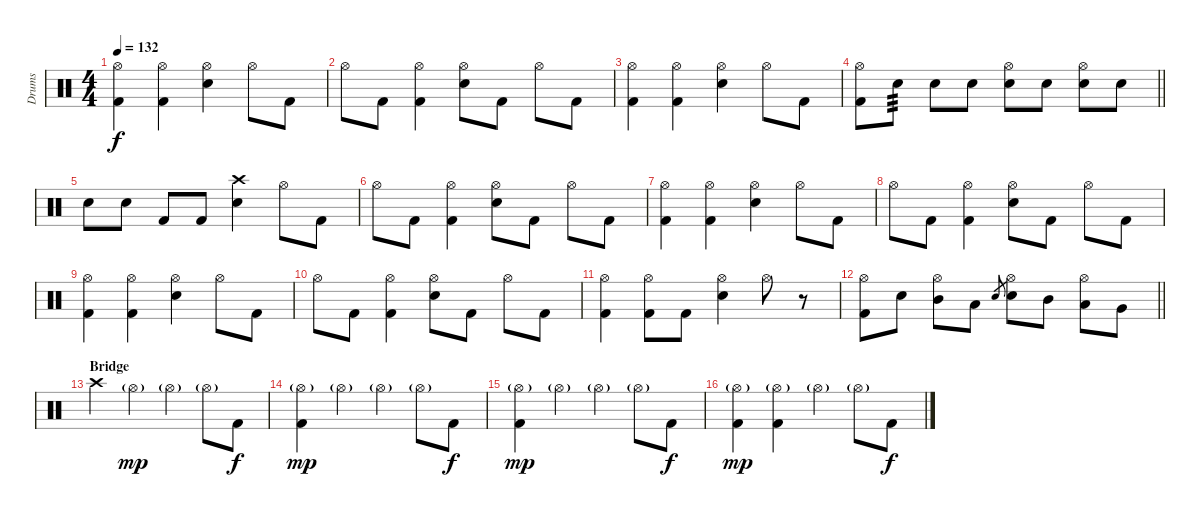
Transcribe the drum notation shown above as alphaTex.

\track ("Drums" "Drums") {instrument percussion}
\staff {score}
\articulation defaults
\ts (4 4)
\tempo 132
\clef neutral
\ks c
("Hi-Hat (open)" "Kick (hit) 2").4{dy f} ("Hi-Hat (open)" "Kick (hit) 2").4 ("Hi-Hat (open)" "Electric Snare (hit)").4 "Hi-Hat (open)".8 "Kick (hit) 2".8 |
"Hi-Hat (open)".8 "Kick (hit) 2".8 ("Hi-Hat (open)" "Kick (hit) 2").4 ("Hi-Hat (open)" "Electric Snare (hit)").8 "Kick (hit) 2".8 "Hi-Hat (open)".8 "Kick (hit) 2".8 |
("Hi-Hat (open)" "Kick (hit) 2").4 ("Hi-Hat (open)" "Kick (hit) 2").4 ("Hi-Hat (open)" "Electric Snare (hit)").4 "Hi-Hat (open)".8 "Kick (hit) 2".8 |
\barLineRight lightlight
("Hi-Hat (open)" "Kick (hit) 2").8 "Electric Snare (hit)".8{tp 3} "Electric Snare (hit)".8 "Electric Snare (hit)".8 ("Hi-Hat (open)" "Electric Snare (hit)").8 "Electric Snare (hit)".8 ("Hi-Hat (open)" "Electric Snare (hit)").8 "Electric Snare (hit)".8 |
"Electric Snare (hit)".8 "Electric Snare (hit)".8 "Kick (hit) 2".8 "Kick (hit) 2".8 ("Crash high (hit)" "Electric Snare (hit)").4 "Hi-Hat (open)".8 "Kick (hit) 2".8 |
"Hi-Hat (open)".8 "Kick (hit) 2".8 ("Hi-Hat (open)" "Kick (hit) 2").4 ("Hi-Hat (open)" "Electric Snare (hit)").8 "Kick (hit) 2".8 "Hi-Hat (open)".8 "Kick (hit) 2".8 |
("Hi-Hat (open)" "Kick (hit) 2").4 ("Hi-Hat (open)" "Kick (hit) 2").4 ("Hi-Hat (open)" "Electric Snare (hit)").4 "Hi-Hat (open)".8 "Kick (hit) 2".8 |
"Hi-Hat (open)".8 "Kick (hit) 2".8 ("Hi-Hat (open)" "Kick (hit) 2").4 ("Hi-Hat (open)" "Electric Snare (hit)").8 "Kick (hit) 2".8 "Hi-Hat (open)".8 "Kick (hit) 2".8 |
("Hi-Hat (open)" "Kick (hit) 2").4 ("Hi-Hat (open)" "Kick (hit) 2").4 ("Hi-Hat (open)" "Electric Snare (hit)").4 "Hi-Hat (open)".8 "Kick (hit) 2".8 |
"Hi-Hat (open)".8 "Kick (hit) 2".8 ("Hi-Hat (open)" "Kick (hit) 2").4 ("Hi-Hat (open)" "Electric Snare (hit)").8 "Kick (hit) 2".8 "Hi-Hat (open)".8 "Kick (hit) 2".8 |
("Hi-Hat (open)" "Kick (hit) 2").4 ("Hi-Hat (open)" "Kick (hit) 2").8 "Kick (hit) 2".8 ("Hi-Hat (open)" "Electric Snare (hit)").4 "Hi-Hat (open)".8 r.8 |
\barLineRight lightlight
("Hi-Hat (open)" "Kick (hit) 2").8 "Electric Snare (hit)".8 ("Hi-Hat (open)" "Mid Tom (hit)").8 "Low Tom (hit)".8 "Electric Snare (hit)".8{gr} ("Hi-Hat (open)" "Electric Snare (hit)").8 "Mid Tom (hit)".8 ("Hi-Hat (open)" "Low Tom (hit)").8 "Very Low Tom (hit)".8 |
\section ("" "Bridge")
"Crash high (hit)".4 "Hi-Hat (open)"{g}.4{dy mp} "Hi-Hat (open)"{g}.4 "Hi-Hat (open)"{g}.8 "Kick (hit) 2".8{dy f} |
("Hi-Hat (open)"{g} "Kick (hit) 2").4{dy mp} "Hi-Hat (open)"{g}.4 "Hi-Hat (open)"{g}.4 "Hi-Hat (open)"{g}.8 "Kick (hit) 2".8{dy f} |
("Hi-Hat (open)"{g} "Kick (hit) 2").4{dy mp} "Hi-Hat (open)"{g}.4 "Hi-Hat (open)"{g}.4 "Hi-Hat (open)"{g}.8 "Kick (hit) 2".8{dy f} |
("Hi-Hat (open)"{g} "Kick (hit) 2").4{dy mp} ("Hi-Hat (open)"{g} "Kick (hit) 2").4 "Hi-Hat (open)"{g}.4 "Hi-Hat (open)"{g}.8 "Kick (hit) 2".8{dy f}
